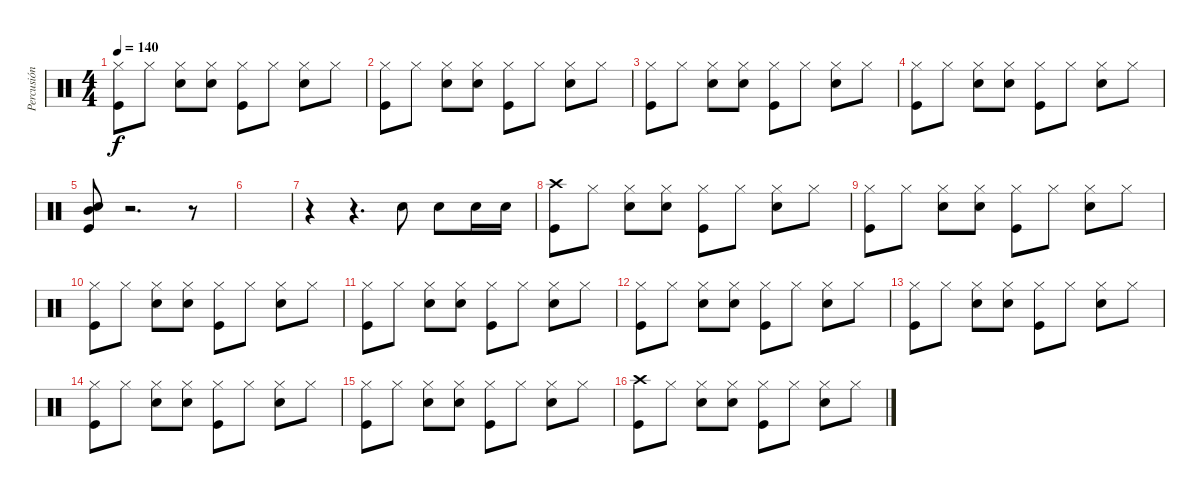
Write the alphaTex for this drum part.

\track ("Percusión" "Percusión") {instrument percussion}
\staff {score}
\articulation defaults
\ts (4 4)
\tempo 140
\clef neutral
\ks c
("Hi-Hat (closed)" "Kick (hit)").8{dy f} "Hi-Hat (closed)".8 ("Snare (hit) 2" "Hi-Hat (closed)").8 ("Hi-Hat (closed)" "Snare (hit) 2").8 ("Kick (hit)" "Hi-Hat (closed)").8 "Hi-Hat (closed)".8 ("Hi-Hat (closed)" "Snare (hit) 2").8 "Hi-Hat (closed)".8 |
("Hi-Hat (closed)" "Kick (hit)").8 "Hi-Hat (closed)".8 ("Snare (hit) 2" "Hi-Hat (closed)").8 ("Hi-Hat (closed)" "Snare (hit) 2").8 ("Kick (hit)" "Hi-Hat (closed)").8 "Hi-Hat (closed)".8 ("Hi-Hat (closed)" "Snare (hit) 2").8 "Hi-Hat (closed)".8 |
("Hi-Hat (closed)" "Kick (hit)").8 "Hi-Hat (closed)".8 ("Snare (hit) 2" "Hi-Hat (closed)").8 ("Hi-Hat (closed)" "Snare (hit) 2").8 ("Kick (hit)" "Hi-Hat (closed)").8 "Hi-Hat (closed)".8 ("Hi-Hat (closed)" "Snare (hit) 2").8 "Hi-Hat (closed)".8 |
("Hi-Hat (closed)" "Kick (hit)").8 "Hi-Hat (closed)".8 ("Snare (hit) 2" "Hi-Hat (closed)").8 ("Hi-Hat (closed)" "Snare (hit) 2").8 ("Kick (hit)" "Hi-Hat (closed)").8 "Hi-Hat (closed)".8 ("Hi-Hat (closed)" "Snare (hit) 2").8 "Hi-Hat (closed)".8 |
("Snare (hit) 2" "Kick (hit)" "Mid Tom (hit)").8 r.2{d} r.8 |
|
r.4 r.4{d} "Snare (hit) 2".8 "Snare (hit) 2".8 "Snare (hit) 2".16 "Snare (hit) 2".16 |
("Crash high (hit)" "Kick (hit)").8 "Hi-Hat (closed)".8 ("Snare (hit) 2" "Hi-Hat (closed)").8 ("Hi-Hat (closed)" "Snare (hit) 2").8 ("Kick (hit)" "Hi-Hat (closed)").8 "Hi-Hat (closed)".8 ("Hi-Hat (closed)" "Snare (hit) 2").8 "Hi-Hat (closed)".8 |
("Hi-Hat (closed)" "Kick (hit)").8 "Hi-Hat (closed)".8 ("Snare (hit) 2" "Hi-Hat (closed)").8 ("Hi-Hat (closed)" "Snare (hit) 2").8 ("Kick (hit)" "Hi-Hat (closed)").8 "Hi-Hat (closed)".8 ("Hi-Hat (closed)" "Snare (hit) 2").8 "Hi-Hat (closed)".8 |
("Hi-Hat (closed)" "Kick (hit)").8 "Hi-Hat (closed)".8 ("Snare (hit) 2" "Hi-Hat (closed)").8 ("Hi-Hat (closed)" "Snare (hit) 2").8 ("Kick (hit)" "Hi-Hat (closed)").8 "Hi-Hat (closed)".8 ("Hi-Hat (closed)" "Snare (hit) 2").8 "Hi-Hat (closed)".8 |
("Hi-Hat (closed)" "Kick (hit)").8 "Hi-Hat (closed)".8 ("Snare (hit) 2" "Hi-Hat (closed)").8 ("Hi-Hat (closed)" "Snare (hit) 2").8 ("Kick (hit)" "Hi-Hat (closed)").8 "Hi-Hat (closed)".8 ("Hi-Hat (closed)" "Snare (hit) 2").8 "Hi-Hat (closed)".8 |
("Hi-Hat (closed)" "Kick (hit)").8 "Hi-Hat (closed)".8 ("Snare (hit) 2" "Hi-Hat (closed)").8 ("Hi-Hat (closed)" "Snare (hit) 2").8 ("Kick (hit)" "Hi-Hat (closed)").8 "Hi-Hat (closed)".8 ("Hi-Hat (closed)" "Snare (hit) 2").8 "Hi-Hat (closed)".8 |
("Hi-Hat (closed)" "Kick (hit)").8 "Hi-Hat (closed)".8 ("Snare (hit) 2" "Hi-Hat (closed)").8 ("Hi-Hat (closed)" "Snare (hit) 2").8 ("Kick (hit)" "Hi-Hat (closed)").8 "Hi-Hat (closed)".8 ("Hi-Hat (closed)" "Snare (hit) 2").8 "Hi-Hat (closed)".8 |
("Hi-Hat (closed)" "Kick (hit)").8 "Hi-Hat (closed)".8 ("Snare (hit) 2" "Hi-Hat (closed)").8 ("Hi-Hat (closed)" "Snare (hit) 2").8 ("Kick (hit)" "Hi-Hat (closed)").8 "Hi-Hat (closed)".8 ("Hi-Hat (closed)" "Snare (hit) 2").8 "Hi-Hat (closed)".8 |
("Hi-Hat (closed)" "Kick (hit)").8 "Hi-Hat (closed)".8 ("Snare (hit) 2" "Hi-Hat (closed)").8 ("Hi-Hat (closed)" "Snare (hit) 2").8 ("Kick (hit)" "Hi-Hat (closed)").8 "Hi-Hat (closed)".8 ("Hi-Hat (closed)" "Snare (hit) 2").8 "Hi-Hat (closed)".8 |
("Crash high (hit)" "Kick (hit)").8 "Hi-Hat (closed)".8 ("Snare (hit) 2" "Hi-Hat (closed)").8 ("Hi-Hat (closed)" "Snare (hit) 2").8 ("Kick (hit)" "Hi-Hat (closed)").8 "Hi-Hat (closed)".8 ("Hi-Hat (closed)" "Snare (hit) 2").8 "Hi-Hat (closed)".8
